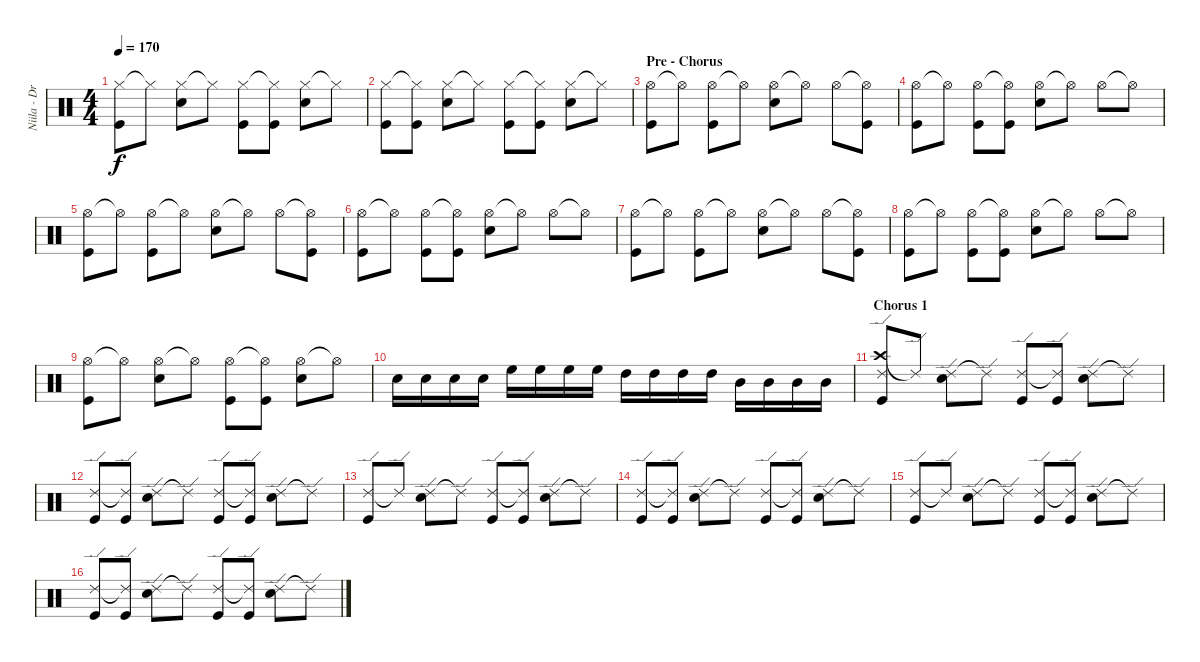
\track ("Niila - Drums" "Niila - Dr") {instrument percussion}
\staff {score}
\articulation defaults
\ts (4 4)
\tempo 170
\clef neutral
\ks c
("Hi-Hat (closed)" "Kick (hit)").8{dy f} "Hi-Hat (closed)"{t}.8 ("Hi-Hat (closed)" "Snare (hit) 2").8 "Hi-Hat (closed)"{t}.8 ("Hi-Hat (closed)" "Kick (hit)").8 ("Hi-Hat (closed)"{t} "Kick (hit)").8 ("Hi-Hat (closed)" "Snare (hit) 2").8 "Hi-Hat (closed)"{t}.8 |
("Hi-Hat (closed)" "Kick (hit)").8 ("Hi-Hat (closed)"{t} "Kick (hit)").8 ("Hi-Hat (closed)" "Snare (hit) 2").8 "Hi-Hat (closed)"{t}.8 ("Hi-Hat (closed)" "Kick (hit)").8 ("Hi-Hat (closed)"{t} "Kick (hit)").8 ("Hi-Hat (closed)" "Snare (hit) 2").8 "Hi-Hat (closed)"{t}.8 |
\section ("" "Pre - Chorus")
("Hi-Hat (open)" "Kick (hit)").8 "Hi-Hat (open)"{t}.8 ("Hi-Hat (open)" "Kick (hit)").8 "Hi-Hat (open)"{t}.8 ("Hi-Hat (open)" "Snare (hit) 2").8 "Hi-Hat (open)"{t}.8 "Hi-Hat (open)".8 ("Hi-Hat (open)"{t} "Kick (hit)").8 |
("Hi-Hat (open)" "Kick (hit)").8 "Hi-Hat (open)"{t}.8 ("Hi-Hat (open)" "Kick (hit)").8 ("Hi-Hat (open)"{t} "Kick (hit)").8 ("Hi-Hat (open)" "Snare (hit) 2").8 "Hi-Hat (open)"{t}.8 "Hi-Hat (open)".8 "Hi-Hat (open)"{t}.8 |
("Hi-Hat (open)" "Kick (hit)").8 "Hi-Hat (open)"{t}.8 ("Hi-Hat (open)" "Kick (hit)").8 "Hi-Hat (open)"{t}.8 ("Hi-Hat (open)" "Snare (hit) 2").8 "Hi-Hat (open)"{t}.8 "Hi-Hat (open)".8 ("Hi-Hat (open)"{t} "Kick (hit)").8 |
("Hi-Hat (open)" "Kick (hit)").8 "Hi-Hat (open)"{t}.8 ("Hi-Hat (open)" "Kick (hit)").8 ("Hi-Hat (open)"{t} "Kick (hit)").8 ("Hi-Hat (open)" "Snare (hit) 2").8 "Hi-Hat (open)"{t}.8 "Hi-Hat (open)".8 "Hi-Hat (open)"{t}.8 |
("Hi-Hat (open)" "Kick (hit)").8 "Hi-Hat (open)"{t}.8 ("Hi-Hat (open)" "Kick (hit)").8 "Hi-Hat (open)"{t}.8 ("Hi-Hat (open)" "Snare (hit) 2").8 "Hi-Hat (open)"{t}.8 "Hi-Hat (open)".8 ("Hi-Hat (open)"{t} "Kick (hit)").8 |
("Hi-Hat (open)" "Kick (hit)").8 "Hi-Hat (open)"{t}.8 ("Hi-Hat (open)" "Kick (hit)").8 ("Hi-Hat (open)"{t} "Kick (hit)").8 ("Hi-Hat (open)" "Snare (hit) 2").8 "Hi-Hat (open)"{t}.8 "Hi-Hat (open)".8 "Hi-Hat (open)"{t}.8 |
("Hi-Hat (open)" "Kick (hit)").8 "Hi-Hat (open)"{t}.8 ("Hi-Hat (open)" "Snare (hit) 2").8 "Hi-Hat (open)"{t}.8 ("Hi-Hat (open)" "Kick (hit)").8 ("Hi-Hat (open)"{t} "Kick (hit)").8 ("Hi-Hat (open)" "Snare (hit) 2").8 "Hi-Hat (open)"{t}.8 |
"Snare (hit) 2".16 "Snare (hit) 2".16 "Snare (hit) 2".16 "Snare (hit) 2".16 "High Floor Tom (hit)".16 "High Floor Tom (hit)".16 "High Floor Tom (hit)".16 "High Floor Tom (hit)".16 "High Tom (hit)".16 "High Tom (hit)".16 "High Tom (hit)".16 "High Tom (hit)".16 "Mid Tom (hit)".16 "Mid Tom (hit)".16 "Mid Tom (hit)".16 "Mid Tom (hit)".16 |
\section ("" "Chorus 1")
("Crash high (hit)" "Ride (edge) 2" "Kick (hit)").8 "Ride (edge) 2"{t}.8 ("Ride (edge) 2" "Snare (hit) 2").8 "Ride (edge) 2"{t}.8 ("Ride (edge) 2" "Kick (hit)").8 ("Ride (edge) 2"{t} "Kick (hit)").8 ("Ride (edge) 2" "Snare (hit) 2").8 "Ride (edge) 2"{t}.8 |
("Ride (edge) 2" "Kick (hit)").8 ("Ride (edge) 2"{t} "Kick (hit)").8 ("Ride (edge) 2" "Snare (hit) 2").8 "Ride (edge) 2"{t}.8 ("Ride (edge) 2" "Kick (hit)").8 ("Ride (edge) 2"{t} "Kick (hit)").8 ("Ride (edge) 2" "Snare (hit) 2").8 "Ride (edge) 2"{t}.8 |
("Ride (edge) 2" "Kick (hit)").8 "Ride (edge) 2"{t}.8 ("Ride (edge) 2" "Snare (hit) 2").8 "Ride (edge) 2"{t}.8 ("Ride (edge) 2" "Kick (hit)").8 ("Ride (edge) 2"{t} "Kick (hit)").8 ("Ride (edge) 2" "Snare (hit) 2").8 "Ride (edge) 2"{t}.8 |
("Ride (edge) 2" "Kick (hit)").8 ("Ride (edge) 2"{t} "Kick (hit)").8 ("Ride (edge) 2" "Snare (hit) 2").8 "Ride (edge) 2"{t}.8 ("Ride (edge) 2" "Kick (hit)").8 ("Ride (edge) 2"{t} "Kick (hit)").8 ("Ride (edge) 2" "Snare (hit) 2").8 "Ride (edge) 2"{t}.8 |
("Ride (edge) 2" "Kick (hit)").8 "Ride (edge) 2"{t}.8 ("Ride (edge) 2" "Snare (hit) 2").8 "Ride (edge) 2"{t}.8 ("Ride (edge) 2" "Kick (hit)").8 ("Ride (edge) 2"{t} "Kick (hit)").8 ("Ride (edge) 2" "Snare (hit) 2").8 "Ride (edge) 2"{t}.8 |
("Ride (edge) 2" "Kick (hit)").8 ("Ride (edge) 2"{t} "Kick (hit)").8 ("Ride (edge) 2" "Snare (hit) 2").8 "Ride (edge) 2"{t}.8 ("Ride (edge) 2" "Kick (hit)").8 ("Ride (edge) 2"{t} "Kick (hit)").8 ("Ride (edge) 2" "Snare (hit) 2").8 "Ride (edge) 2"{t}.8
